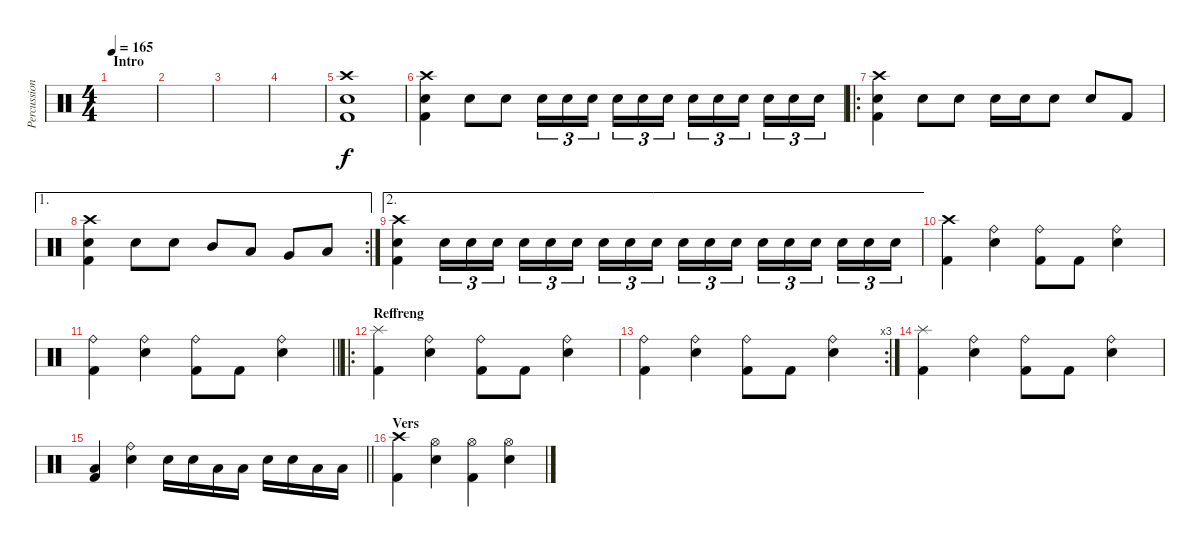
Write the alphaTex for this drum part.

\track ("Percussions" "Percussion") {instrument percussion}
\staff {score}
\articulation defaults
\ts (4 4)
\section ("" "Intro")
\tempo 165
\clef neutral
\ks c
|
|
|
|
("Crash high (hit)" "Snare (hit) 2" "Kick (hit) 2").1 |
("Crash high (hit)" "Snare (hit) 2" "Kick (hit) 2").4 "Snare (hit) 2".8 "Snare (hit) 2".8 "Snare (hit) 2".16{tu (3 2)} "Snare (hit) 2".16{tu (3 2)} "Snare (hit) 2".16{tu (3 2) beam splitsecondary} "Snare (hit) 2".16{tu (3 2)} "Snare (hit) 2".16{tu (3 2)} "Snare (hit) 2".16{tu (3 2)} "Snare (hit) 2".16{tu (3 2)} "Snare (hit) 2".16{tu (3 2)} "Snare (hit) 2".16{tu (3 2) beam splitsecondary} "Snare (hit) 2".16{tu (3 2)} "Snare (hit) 2".16{tu (3 2)} "Snare (hit) 2".16{tu (3 2)} |
\ro
("Crash high (hit)" "Snare (hit) 2" "Kick (hit) 2").4 "Snare (hit) 2".8 "Snare (hit) 2".8 "Snare (hit) 2".16 "Snare (hit) 2".16 "Snare (hit) 2".8 "Snare (hit) 2".8 "Kick (hit) 2".8 |
\ae 1
\rc 2
("Crash high (hit)" "Snare (hit) 2" "Kick (hit) 2").4 "Snare (hit) 2".8 "Snare (hit) 2".8 "Mid Tom (hit)".8 "Low Tom (hit)".8 "Very Low Tom (hit)".8 "Low Floor Tom (hit)".8 |
\ae 2
("Crash high (hit)" "Snare (hit) 2" "Kick (hit) 2").4 "Snare (hit) 2".16{tu (3 2)} "Snare (hit) 2".16{tu (3 2)} "Snare (hit) 2".16{tu (3 2) beam splitsecondary} "Snare (hit) 2".16{tu (3 2)} "Snare (hit) 2".16{tu (3 2)} "Snare (hit) 2".16{tu (3 2)} "Snare (hit) 2".16{tu (3 2)} "Snare (hit) 2".16{tu (3 2)} "Snare (hit) 2".16{tu (3 2) beam splitsecondary} "Snare (hit) 2".16{tu (3 2)} "Snare (hit) 2".16{tu (3 2)} "Snare (hit) 2".16{tu (3 2)} "Snare (hit) 2".16{tu (3 2)} "Snare (hit) 2".16{tu (3 2)} "Snare (hit) 2".16{tu (3 2) beam splitsecondary} "Snare (hit) 2".16{tu (3 2)} "Snare (hit) 2".16{tu (3 2)} "Snare (hit) 2".16{tu (3 2)} |
("Crash high (hit)" "Kick (hit) 2").4 ("Ride (bell)" "Snare (hit) 2").4 ("Ride (bell)" "Kick (hit) 2").8 "Kick (hit) 2".8 ("Ride (bell)" "Snare (hit) 2").4 |
\barLineRight lightlight
("Ride (bell)" "Kick (hit) 2").4 ("Ride (bell)" "Snare (hit) 2").4 ("Ride (bell)" "Kick (hit) 2").8 "Kick (hit) 2".8 ("Ride (bell)" "Snare (hit) 2").4 |
\ro
\section ("" "Reffreng")
("Splash (hit)" "Kick (hit) 2").4 ("Ride (bell)" "Snare (hit) 2").4 ("Ride (bell)" "Kick (hit) 2").8 "Kick (hit) 2".8 ("Ride (bell)" "Snare (hit) 2").4 |
\rc 3
("Ride (bell)" "Kick (hit) 2").4 ("Ride (bell)" "Snare (hit) 2").4 ("Ride (bell)" "Kick (hit) 2").8 "Kick (hit) 2".8 ("Ride (bell)" "Snare (hit) 2").4 |
("Splash (hit)" "Kick (hit) 2").4 ("Ride (bell)" "Snare (hit) 2").4 ("Ride (bell)" "Kick (hit) 2").8 "Kick (hit) 2".8 ("Ride (bell)" "Snare (hit) 2").4 |
\barLineRight lightlight
("Low Tom (hit)" "Kick (hit) 2").4 ("Ride (bell)" "Snare (hit) 2").4 "Snare (hit) 2".16 "Snare (hit) 2".16 "Low Tom (hit)".16 "Low Tom (hit)".16 "Snare (hit) 2".16 "Snare (hit) 2".16 "Low Tom (hit)".16 "Low Tom (hit)".16 |
\section ("" "Vers")
("Crash high (hit)" "Kick (hit) 2").4 ("Hi-Hat (open)" "Snare (hit) 2").4 ("Hi-Hat (open)" "Kick (hit) 2").4 ("Hi-Hat (open)" "Snare (hit) 2").4
